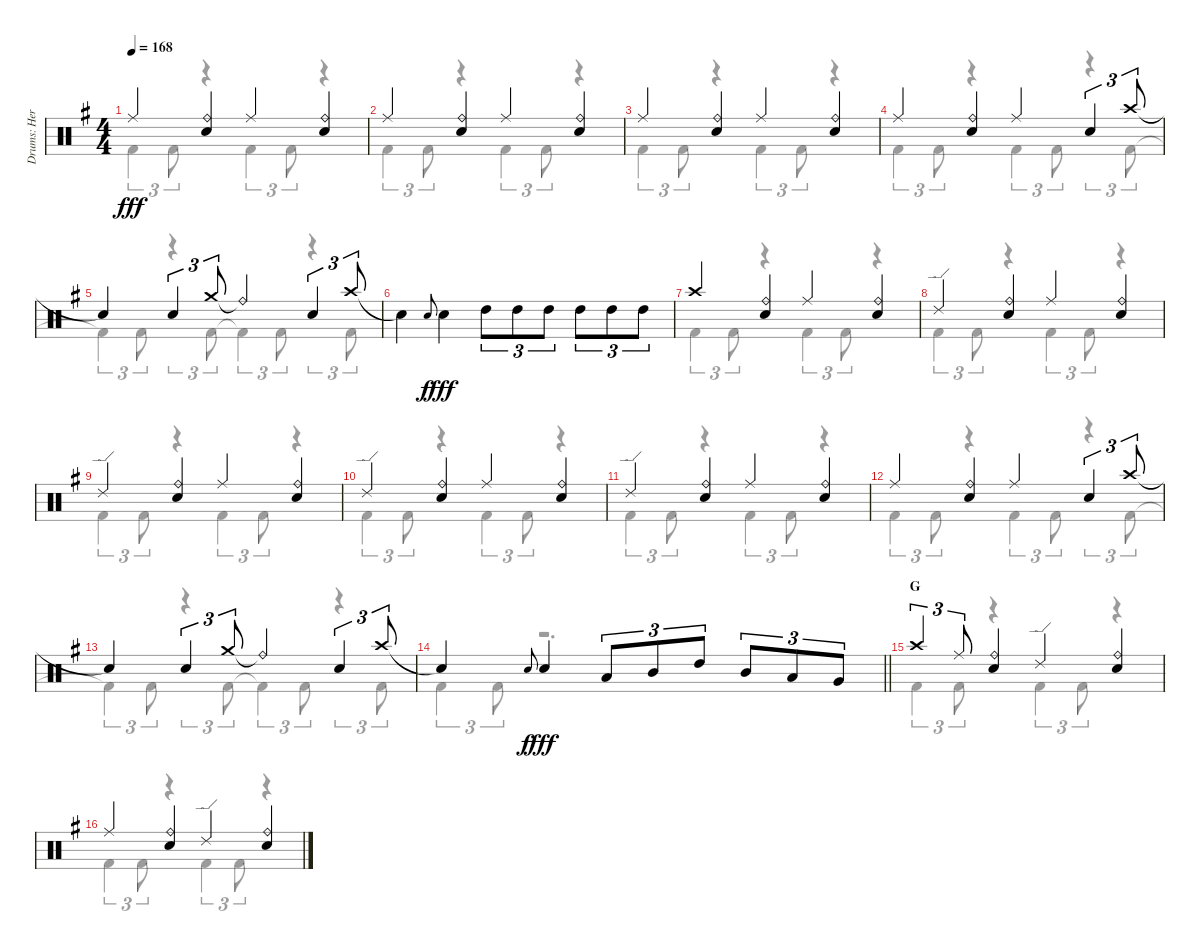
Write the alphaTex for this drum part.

\track ("Drums: Herman" "Drums: Her") {instrument percussion}
\staff {score}
\articulation defaults
\voice
\ts (4 4)
\tempo 168
\clef neutral
\ks g "Ride (middle)".4{dy fff}
("Ride (bell)" "Snare (hit) 2").4 "Ride (middle)".4 ("Ride (bell)" "Snare (hit) 2").4 |
"Ride (middle)".4 ("Ride (bell)" "Snare (hit) 2").4 "Ride (middle)".4 ("Ride (bell)" "Snare (hit) 2").4 |
"Ride (middle)".4 ("Ride (bell)" "Snare (hit) 2").4 "Ride (middle)".4 ("Ride (bell)" "Snare (hit) 2").4 |
"Ride (middle)".4 ("Ride (bell)" "Snare (hit) 2").4 "Ride (middle)".4 "Snare (hit) 2".4{tu (3 2)} "Crash high (hit)".8{tu (3 2)} |
"Snare (hit)"{t}.4 "Snare (hit) 2".4{tu (3 2)} "Crash medium (hit)".8{tu (3 2)} "Ride (bell)"{t}.4 "Snare (hit) 2".4{tu (3 2)} "Crash high (hit)".8{tu (3 2)} |
"Snare (hit)"{t}.4 "Electric Snare (hit)".8{gr onbeat dy f} "Snare (hit) 2".4{dy fff} "High Tom (hit)".8{tu (3 2)} "High Tom (hit)".8{tu (3 2)} "High Tom (hit)".8{tu (3 2)} "High Tom (hit)".8{tu (3 2)} "High Tom (hit)".8{tu (3 2)} "High Tom (hit)".8{tu (3 2)} |
"Crash high (hit)".4 ("Ride (bell)" "Snare (hit) 2").4 "Ride (middle)".4 ("Ride (bell)" "Snare (hit) 2").4 |
"Ride (edge) 2".4 ("Ride (bell)" "Snare (hit) 2").4 "Ride (middle)".4 ("Ride (bell)" "Snare (hit) 2").4 |
"Ride (edge) 2".4 ("Ride (bell)" "Snare (hit) 2").4 "Ride (middle)".4 ("Ride (bell)" "Snare (hit) 2").4 |
"Ride (edge) 2".4 ("Ride (bell)" "Snare (hit) 2").4 "Ride (middle)".4 ("Ride (bell)" "Snare (hit) 2").4 |
"Ride (edge) 2".4 ("Ride (bell)" "Snare (hit) 2").4 "Ride (middle)".4 ("Ride (bell)" "Snare (hit) 2").4 |
"Ride (middle)".4 ("Ride (bell)" "Snare (hit) 2").4 "Ride (middle)".4 "Snare (hit) 2".4{tu (3 2)} "Crash high (hit)".8{tu (3 2)} |
"Snare (hit)"{t}.4 "Snare (hit) 2".4{tu (3 2)} "Crash medium (hit)".8{tu (3 2)} "Ride (bell)"{t}.4 "Snare (hit) 2".4{tu (3 2)} "Crash high (hit)".8{tu (3 2)} |
\barLineRight lightlight "Snare (hit)"{t}.4 "Electric Snare (hit)".8{gr onbeat dy f} "Snare (hit) 2".4{dy fff} "Low Tom (hit)".8{tu (3 2)} "Mid Tom (hit)".8{tu (3 2)} "High Tom (hit)".8{tu (3 2)} "Mid Tom (hit)".8{tu (3 2)} "Low Tom (hit)".8{tu (3 2)} "Very Low Tom (hit)".8{tu (3 2)}
|
\section ("" "G")
"Crash high (hit)".4{tu (3 2)} "Ride (middle)".8{tu (3 2)} ("Ride (bell)" "Snare (hit) 2").4 "Ride (edge) 2".4 ("Ride (bell)" "Snare (hit) 2").4 |
"Ride (middle)".4 ("Ride (bell)" "Snare (hit) 2").4 "Ride (edge) 2".4 ("Ride (bell)" "Snare (hit) 2").4
\voice
\clef neutral
\ottava regular
\simile none
\ks g "Kick (hit) 2".4{tu (3 2) dy fff} "Kick (hit) 2".8{tu (3 2)}
r.4 "Kick (hit) 2".4{tu (3 2)} "Kick (hit) 2".8{tu (3 2)} r.4 |
"Kick (hit) 2".4{tu (3 2)} "Kick (hit) 2".8{tu (3 2)} r.4 "Kick (hit) 2".4{tu (3 2)} "Kick (hit) 2".8{tu (3 2)} r.4 |
"Kick (hit) 2".4{tu (3 2)} "Kick (hit) 2".8{tu (3 2)} r.4 "Kick (hit) 2".4{tu (3 2)} "Kick (hit) 2".8{tu (3 2)} r.4 |
"Kick (hit) 2".4{tu (3 2)} "Kick (hit) 2".8{tu (3 2)} r.4 "Kick (hit) 2".4{tu (3 2)} "Kick (hit) 2".8{tu (3 2)} r.4{tu (3 2)} "Kick (hit) 2".8{tu (3 2)} |
"Kick (hit) 2"{t}.4{tu (3 2)} "Kick (hit) 2".8{tu (3 2)} r.4{tu (3 2)} "Kick (hit) 2".8{tu (3 2)} "Kick (hit) 2"{t}.4{tu (3 2)} "Kick (hit) 2".8{tu (3 2)} r.4{tu (3 2)} "Kick (hit) 2".8{tu (3 2)} |
|
"Kick (hit) 2".4{tu (3 2)} "Kick (hit) 2".8{tu (3 2)} r.4 "Kick (hit) 2".4{tu (3 2)} "Kick (hit) 2".8{tu (3 2)} r.4 |
"Kick (hit) 2".4{tu (3 2)} "Kick (hit) 2".8{tu (3 2)} r.4 "Kick (hit) 2".4{tu (3 2)} "Kick (hit) 2".8{tu (3 2)} r.4 |
"Kick (hit) 2".4{tu (3 2)} "Kick (hit) 2".8{tu (3 2)} r.4 "Kick (hit) 2".4{tu (3 2)} "Kick (hit) 2".8{tu (3 2)} r.4 |
"Kick (hit) 2".4{tu (3 2)} "Kick (hit) 2".8{tu (3 2)} r.4 "Kick (hit) 2".4{tu (3 2)} "Kick (hit) 2".8{tu (3 2)} r.4 |
"Kick (hit) 2".4{tu (3 2)} "Kick (hit) 2".8{tu (3 2)} r.4 "Kick (hit) 2".4{tu (3 2)} "Kick (hit) 2".8{tu (3 2)} r.4 |
"Kick (hit) 2".4{tu (3 2)} "Kick (hit) 2".8{tu (3 2)} r.4 "Kick (hit) 2".4{tu (3 2)} "Kick (hit) 2".8{tu (3 2)} r.4{tu (3 2)} "Kick (hit) 2".8{tu (3 2)} |
"Kick (hit) 2"{t}.4{tu (3 2)} "Kick (hit) 2".8{tu (3 2)} r.4{tu (3 2)} "Kick (hit) 2".8{tu (3 2)} "Kick (hit) 2"{t}.4{tu (3 2)} "Kick (hit) 2".8{tu (3 2)} r.4{tu (3 2)} "Kick (hit) 2".8{tu (3 2)} |
\barLineRight lightlight "Kick (hit) 2".4{tu (3 2)} "Kick (hit) 2".8{tu (3 2)}
r.2{d} |
"Kick (hit) 2".4{tu (3 2)} "Kick (hit) 2".8{tu (3 2)} r.4 "Kick (hit) 2".4{tu (3 2)} "Kick (hit) 2".8{tu (3 2)} r.4 |
"Kick (hit) 2".4{tu (3 2)} "Kick (hit) 2".8{tu (3 2)} r.4 "Kick (hit) 2".4{tu (3 2)} "Kick (hit) 2".8{tu (3 2)} r.4
